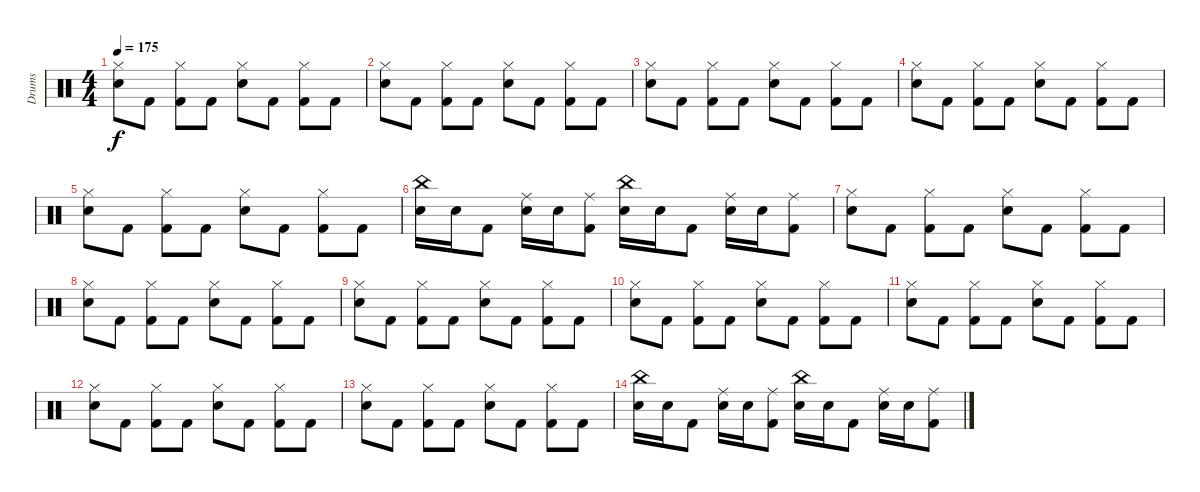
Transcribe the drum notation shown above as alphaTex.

\track ("Drums" "Drums") {instrument percussion}
\staff {score}
\articulation defaults
\ts (4 4)
\tempo 175
\clef neutral
\ks c
("Hi-Hat (closed)" "Electric Snare (hit)").8{dy f} "Kick (hit) 2".8 ("Hi-Hat (closed)" "Kick (hit) 2").8 "Kick (hit) 2".8 ("Hi-Hat (closed)" "Electric Snare (hit)").8 "Kick (hit) 2".8 ("Hi-Hat (closed)" "Kick (hit) 2").8 "Kick (hit) 2".8 |
("Hi-Hat (closed)" "Electric Snare (hit)").8 "Kick (hit) 2".8 ("Hi-Hat (closed)" "Kick (hit) 2").8 "Kick (hit) 2".8 ("Hi-Hat (closed)" "Electric Snare (hit)").8 "Kick (hit) 2".8 ("Hi-Hat (closed)" "Kick (hit) 2").8 "Kick (hit) 2".8 |
("Hi-Hat (closed)" "Electric Snare (hit)").8 "Kick (hit) 2".8 ("Hi-Hat (closed)" "Kick (hit) 2").8 "Kick (hit) 2".8 ("Hi-Hat (closed)" "Electric Snare (hit)").8 "Kick (hit) 2".8 ("Hi-Hat (closed)" "Kick (hit) 2").8 "Kick (hit) 2".8 |
("Hi-Hat (closed)" "Electric Snare (hit)").8 "Kick (hit) 2".8 ("Hi-Hat (closed)" "Kick (hit) 2").8 "Kick (hit) 2".8 ("Hi-Hat (closed)" "Electric Snare (hit)").8 "Kick (hit) 2".8 ("Hi-Hat (closed)" "Kick (hit) 2").8 "Kick (hit) 2".8 |
("Hi-Hat (closed)" "Electric Snare (hit)").8 "Kick (hit) 2".8 ("Hi-Hat (closed)" "Kick (hit) 2").8 "Kick (hit) 2".8 ("Hi-Hat (closed)" "Electric Snare (hit)").8 "Kick (hit) 2".8 ("Hi-Hat (closed)" "Kick (hit) 2").8 "Kick (hit) 2".8 |
("China (hit)" "Electric Snare (hit)").16 "Electric Snare (hit)".16 "Kick (hit) 2".8 ("Ride (middle)" "Electric Snare (hit)").16 "Electric Snare (hit)".16 ("Ride (middle)" "Kick (hit) 2").8 ("China (hit)" "Electric Snare (hit)").16 "Electric Snare (hit)".16 "Kick (hit) 2".8 ("Ride (middle)" "Electric Snare (hit)").16 "Electric Snare (hit)".16 ("Ride (middle)" "Kick (hit) 2").8 |
("Hi-Hat (closed)" "Electric Snare (hit)").8 "Kick (hit) 2".8 ("Hi-Hat (closed)" "Kick (hit) 2").8 "Kick (hit) 2".8 ("Hi-Hat (closed)" "Electric Snare (hit)").8 "Kick (hit) 2".8 ("Hi-Hat (closed)" "Kick (hit) 2").8 "Kick (hit) 2".8 |
("Hi-Hat (closed)" "Electric Snare (hit)").8 "Kick (hit) 2".8 ("Hi-Hat (closed)" "Kick (hit) 2").8 "Kick (hit) 2".8 ("Hi-Hat (closed)" "Electric Snare (hit)").8 "Kick (hit) 2".8 ("Hi-Hat (closed)" "Kick (hit) 2").8 "Kick (hit) 2".8 |
("Hi-Hat (closed)" "Electric Snare (hit)").8 "Kick (hit) 2".8 ("Hi-Hat (closed)" "Kick (hit) 2").8 "Kick (hit) 2".8 ("Hi-Hat (closed)" "Electric Snare (hit)").8 "Kick (hit) 2".8 ("Hi-Hat (closed)" "Kick (hit) 2").8 "Kick (hit) 2".8 |
("Hi-Hat (closed)" "Electric Snare (hit)").8 "Kick (hit) 2".8 ("Hi-Hat (closed)" "Kick (hit) 2").8 "Kick (hit) 2".8 ("Hi-Hat (closed)" "Electric Snare (hit)").8 "Kick (hit) 2".8 ("Hi-Hat (closed)" "Kick (hit) 2").8 "Kick (hit) 2".8 |
("Hi-Hat (closed)" "Electric Snare (hit)").8 "Kick (hit) 2".8 ("Hi-Hat (closed)" "Kick (hit) 2").8 "Kick (hit) 2".8 ("Hi-Hat (closed)" "Electric Snare (hit)").8 "Kick (hit) 2".8 ("Hi-Hat (closed)" "Kick (hit) 2").8 "Kick (hit) 2".8 |
("Hi-Hat (closed)" "Electric Snare (hit)").8 "Kick (hit) 2".8 ("Hi-Hat (closed)" "Kick (hit) 2").8 "Kick (hit) 2".8 ("Hi-Hat (closed)" "Electric Snare (hit)").8 "Kick (hit) 2".8 ("Hi-Hat (closed)" "Kick (hit) 2").8 "Kick (hit) 2".8 |
("Hi-Hat (closed)" "Electric Snare (hit)").8 "Kick (hit) 2".8 ("Hi-Hat (closed)" "Kick (hit) 2").8 "Kick (hit) 2".8 ("Hi-Hat (closed)" "Electric Snare (hit)").8 "Kick (hit) 2".8 ("Hi-Hat (closed)" "Kick (hit) 2").8 "Kick (hit) 2".8 |
("China (hit)" "Electric Snare (hit)").16 "Electric Snare (hit)".16 "Kick (hit) 2".8 ("Ride (middle)" "Electric Snare (hit)").16 "Electric Snare (hit)".16 ("Ride (middle)" "Kick (hit) 2").8 ("China (hit)" "Electric Snare (hit)").16 "Electric Snare (hit)".16 "Kick (hit) 2".8 ("Ride (middle)" "Electric Snare (hit)").16 "Electric Snare (hit)".16 ("Ride (middle)" "Kick (hit) 2").8
